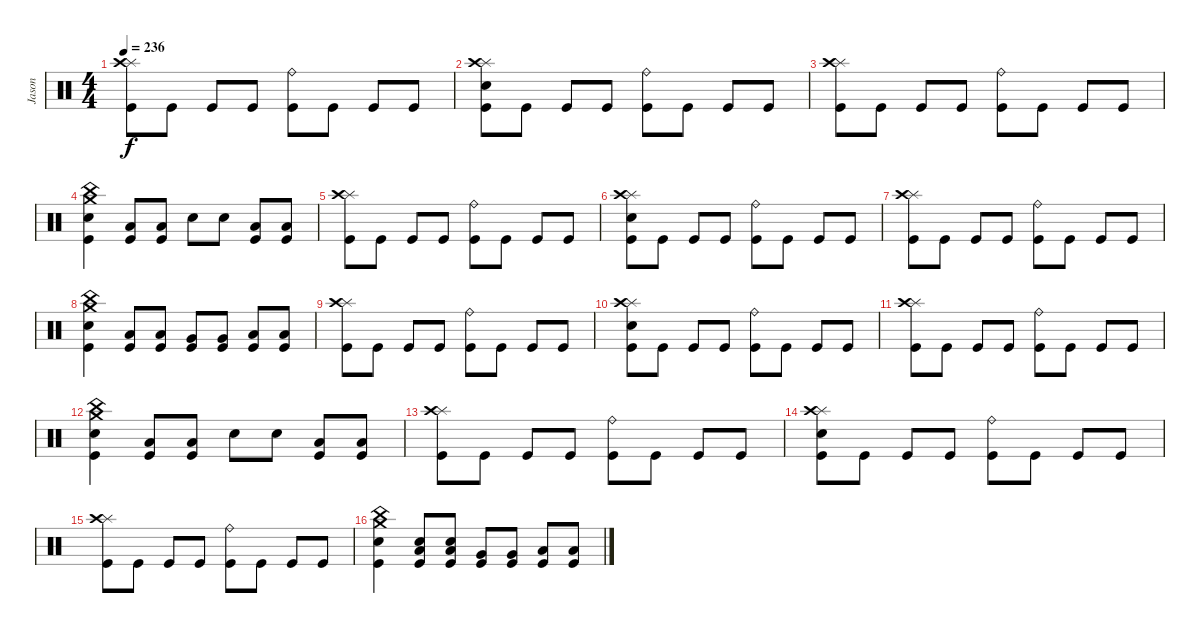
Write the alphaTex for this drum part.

\track ("Jason" "Jason") {instrument percussion}
\staff {score}
\articulation defaults
\ts (4 4)
\tempo 236
\clef neutral
\ks c
("Splash (hit)" "Crash high (hit)" "Kick (hit)").8{dy f} "Kick (hit)".8 "Kick (hit)".8 "Kick (hit)".8 ("Ride (bell)" "Kick (hit)").8 "Kick (hit)".8 "Kick (hit)".8 "Kick (hit)".8 |
("Splash (hit)" "Crash high (hit)" "Electric Snare (hit)" "Kick (hit)").8 "Kick (hit)".8 "Kick (hit)".8 "Kick (hit)".8 ("Ride (bell)" "Kick (hit)").8 "Kick (hit)".8 "Kick (hit)".8 "Kick (hit)".8 |
("Splash (hit)" "Crash high (hit)" "Kick (hit)").8 "Kick (hit)".8 "Kick (hit)".8 "Kick (hit)".8 ("Ride (bell)" "Kick (hit)").8 "Kick (hit)".8 "Kick (hit)".8 "Kick (hit)".8 |
("China (hit)" "Crash medium (hit)" "Electric Snare (hit)" "Kick (hit)").4 ("Low Floor Tom (hit)" "Kick (hit)").8 ("Low Floor Tom (hit)" "Kick (hit)").8 "Electric Snare (hit)".8 "Electric Snare (hit)".8 ("Low Floor Tom (hit)" "Kick (hit)").8 ("Low Floor Tom (hit)" "Kick (hit)").8 |
("Splash (hit)" "Crash high (hit)" "Kick (hit)").8 "Kick (hit)".8 "Kick (hit)".8 "Kick (hit)".8 ("Ride (bell)" "Kick (hit)").8 "Kick (hit)".8 "Kick (hit)".8 "Kick (hit)".8 |
("Splash (hit)" "Crash high (hit)" "Electric Snare (hit)" "Kick (hit)").8 "Kick (hit)".8 "Kick (hit)".8 "Kick (hit)".8 ("Ride (bell)" "Kick (hit)").8 "Kick (hit)".8 "Kick (hit)".8 "Kick (hit)".8 |
("Splash (hit)" "Crash high (hit)" "Kick (hit)").8 "Kick (hit)".8 "Kick (hit)".8 "Kick (hit)".8 ("Ride (bell)" "Kick (hit)").8 "Kick (hit)".8 "Kick (hit)".8 "Kick (hit)".8 |
("China (hit)" "Crash medium (hit)" "Electric Snare (hit)" "Kick (hit)").4 ("Low Tom (hit)" "Kick (hit)").8 ("Low Tom (hit)" "Kick (hit)").8 ("Very Low Tom (hit)" "Kick (hit)").8 ("Very Low Tom (hit)" "Kick (hit)").8 ("Low Floor Tom (hit)" "Kick (hit)").8 ("Low Floor Tom (hit)" "Kick (hit)").8 |
("Splash (hit)" "Crash high (hit)" "Kick (hit)").8 "Kick (hit)".8 "Kick (hit)".8 "Kick (hit)".8 ("Ride (bell)" "Kick (hit)").8 "Kick (hit)".8 "Kick (hit)".8 "Kick (hit)".8 |
("Splash (hit)" "Crash high (hit)" "Electric Snare (hit)" "Kick (hit)").8 "Kick (hit)".8 "Kick (hit)".8 "Kick (hit)".8 ("Ride (bell)" "Kick (hit)").8 "Kick (hit)".8 "Kick (hit)".8 "Kick (hit)".8 |
("Splash (hit)" "Crash high (hit)" "Kick (hit)").8 "Kick (hit)".8 "Kick (hit)".8 "Kick (hit)".8 ("Ride (bell)" "Kick (hit)").8 "Kick (hit)".8 "Kick (hit)".8 "Kick (hit)".8 |
("China (hit)" "Crash medium (hit)" "Electric Snare (hit)" "Kick (hit)").4 ("Low Floor Tom (hit)" "Kick (hit)").8 ("Low Floor Tom (hit)" "Kick (hit)").8 "Electric Snare (hit)".8 "Electric Snare (hit)".8 ("Low Floor Tom (hit)" "Kick (hit)").8 ("Low Floor Tom (hit)" "Kick (hit)").8 |
("Splash (hit)" "Crash high (hit)" "Kick (hit)").8 "Kick (hit)".8 "Kick (hit)".8 "Kick (hit)".8 ("Ride (bell)" "Kick (hit)").8 "Kick (hit)".8 "Kick (hit)".8 "Kick (hit)".8 |
("Splash (hit)" "Crash high (hit)" "Electric Snare (hit)" "Kick (hit)").8 "Kick (hit)".8 "Kick (hit)".8 "Kick (hit)".8 ("Ride (bell)" "Kick (hit)").8 "Kick (hit)".8 "Kick (hit)".8 "Kick (hit)".8 |
("Splash (hit)" "Crash high (hit)" "Kick (hit)").8 "Kick (hit)".8 "Kick (hit)".8 "Kick (hit)".8 ("Ride (bell)" "Kick (hit)").8 "Kick (hit)".8 "Kick (hit)".8 "Kick (hit)".8 |
("China (hit)" "Crash medium (hit)" "Electric Snare (hit)" "Kick (hit)").4 ("Low Tom (hit)" "Electric Snare (hit)" "Kick (hit)").8 ("Low Tom (hit)" "Electric Snare (hit)" "Kick (hit)").8 ("Very Low Tom (hit)" "Kick (hit)").8 ("Very Low Tom (hit)" "Kick (hit)").8 ("Low Floor Tom (hit)" "Kick (hit)").8 ("Low Floor Tom (hit)" "Kick (hit)").8
